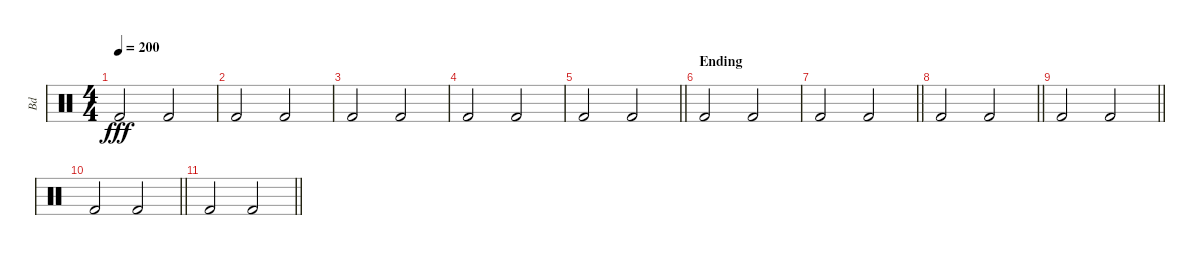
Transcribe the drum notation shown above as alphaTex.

\track ("Bd" "Bd") {instrument percussion}
\staff {score}
\articulation defaults
\ts (4 4)
\tempo 200
\clef neutral
\ks c "Kick (hit) 2".2{dy fff} "Kick (hit) 2".2
|
"Kick (hit) 2".2 "Kick (hit) 2".2 |
"Kick (hit) 2".2 "Kick (hit) 2".2 |
"Kick (hit) 2".2 "Kick (hit) 2".2 |
\barLineRight lightlight "Kick (hit) 2".2 "Kick (hit) 2".2
|
\section ("" "Ending")
"Kick (hit) 2".2 "Kick (hit) 2".2 |
\barLineRight lightlight "Kick (hit) 2".2 "Kick (hit) 2".2
|
\barLineRight lightlight "Kick (hit) 2".2 "Kick (hit) 2".2
|
\barLineRight lightlight "Kick (hit) 2".2 "Kick (hit) 2".2
|
\barLineRight lightlight "Kick (hit) 2".2 "Kick (hit) 2".2
|
\barLineRight lightlight "Kick (hit) 2".2 "Kick (hit) 2".2
